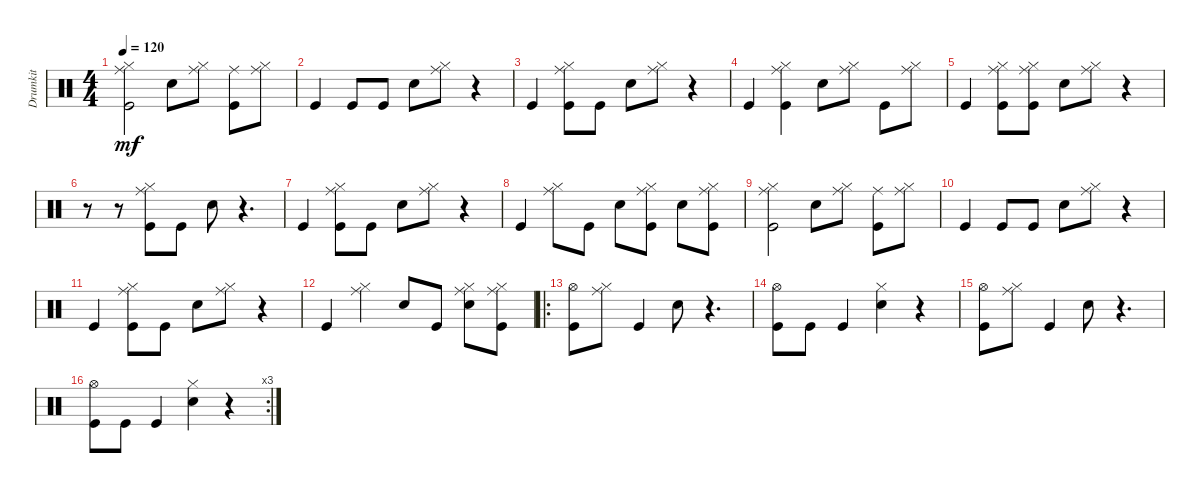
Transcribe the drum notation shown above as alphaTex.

\track ("Drumkit" "Drumkit") {instrument percussion}
\staff {score}
\articulation defaults
\ts (4 4)
\tempo 120
\clef neutral
\ks c
("Kick (hit)" "Ride (middle)" "Hi-Hat (closed)").2{dy mf} "Snare (hit) 2".8 ("Hi-Hat (closed)" "Ride (middle)").8 ("Kick (hit)" "Ride (middle)").8 ("Hi-Hat (closed)" "Ride (middle)").8 |
"Kick (hit)".4 "Kick (hit)".8 "Kick (hit)".8 "Snare (hit) 2".8 ("Hi-Hat (closed)" "Ride (middle)").8 r.4 |
"Kick (hit)".4 ("Kick (hit)" "Ride (middle)" "Hi-Hat (closed)").8 "Kick (hit)".8 "Snare (hit) 2".8 ("Hi-Hat (closed)" "Ride (middle)").8 r.4 |
"Kick (hit)".4 ("Kick (hit)" "Ride (middle)" "Hi-Hat (closed)").4 "Snare (hit) 2".8 ("Ride (middle)" "Hi-Hat (closed)").8 "Kick (hit)".8 ("Ride (middle)" "Hi-Hat (closed)").8 |
"Kick (hit)".4 ("Kick (hit)" "Ride (middle)" "Hi-Hat (closed)").8 ("Kick (hit)" "Ride (middle)" "Hi-Hat (closed)").8 "Snare (hit) 2".8 ("Hi-Hat (closed)" "Ride (middle)").8 r.4 |
r.8 r.8 ("Ride (middle)" "Hi-Hat (closed)" "Kick (hit)").8 "Kick (hit)".8 "Snare (hit) 2".8 r.4{d} |
"Kick (hit)".4 ("Kick (hit)" "Ride (middle)" "Hi-Hat (closed)").8 "Kick (hit)".8 "Snare (hit) 2".8 ("Ride (middle)" "Hi-Hat (closed)").8 r.4 |
"Kick (hit)".4 ("Ride (middle)" "Hi-Hat (closed)").8 "Kick (hit)".8 "Snare (hit) 2".8 ("Ride (middle)" "Hi-Hat (closed)" "Kick (hit)").8 "Snare (hit) 2".8 ("Ride (middle)" "Hi-Hat (closed)" "Kick (hit)").8 |
("Kick (hit)" "Ride (middle)" "Hi-Hat (closed)").2 "Snare (hit) 2".8 ("Hi-Hat (closed)" "Ride (middle)").8 ("Kick (hit)" "Ride (middle)").8 ("Hi-Hat (closed)" "Ride (middle)").8 |
"Kick (hit)".4 "Kick (hit)".8 "Kick (hit)".8 "Snare (hit) 2".8 ("Hi-Hat (closed)" "Ride (middle)").8 r.4 |
"Kick (hit)".4 ("Kick (hit)" "Ride (middle)" "Hi-Hat (closed)").8 "Kick (hit)".8 "Snare (hit) 2".8 ("Hi-Hat (closed)" "Ride (middle)").8 r.4 |
"Kick (hit)".4 ("Ride (middle)" "Hi-Hat (closed)").4 "Snare (hit) 2".8 "Kick (hit)".8 ("Hi-Hat (closed)" "Ride (middle)" "Snare (hit) 2").8 ("Ride (middle)" "Hi-Hat (closed)" "Kick (hit)").8 |
\ro
("Kick (hit)" "Hi-Hat (open)").8 ("Ride (middle)" "Hi-Hat (closed)").8 "Kick (hit)".4 "Snare (hit) 2".8 r.4{d} |
("Kick (hit)" "Hi-Hat (open)").8 "Kick (hit)".8 "Kick (hit)".4 ("Snare (hit) 2" "Hi-Hat (closed)").4 r.4 |
("Kick (hit)" "Hi-Hat (open)").8 ("Ride (middle)" "Hi-Hat (closed)").8 "Kick (hit)".4 "Snare (hit) 2".8 r.4{d} |
\rc 3
("Kick (hit)" "Hi-Hat (open)").8 "Kick (hit)".8 "Kick (hit)".4 ("Snare (hit) 2" "Hi-Hat (closed)").4 r.4
